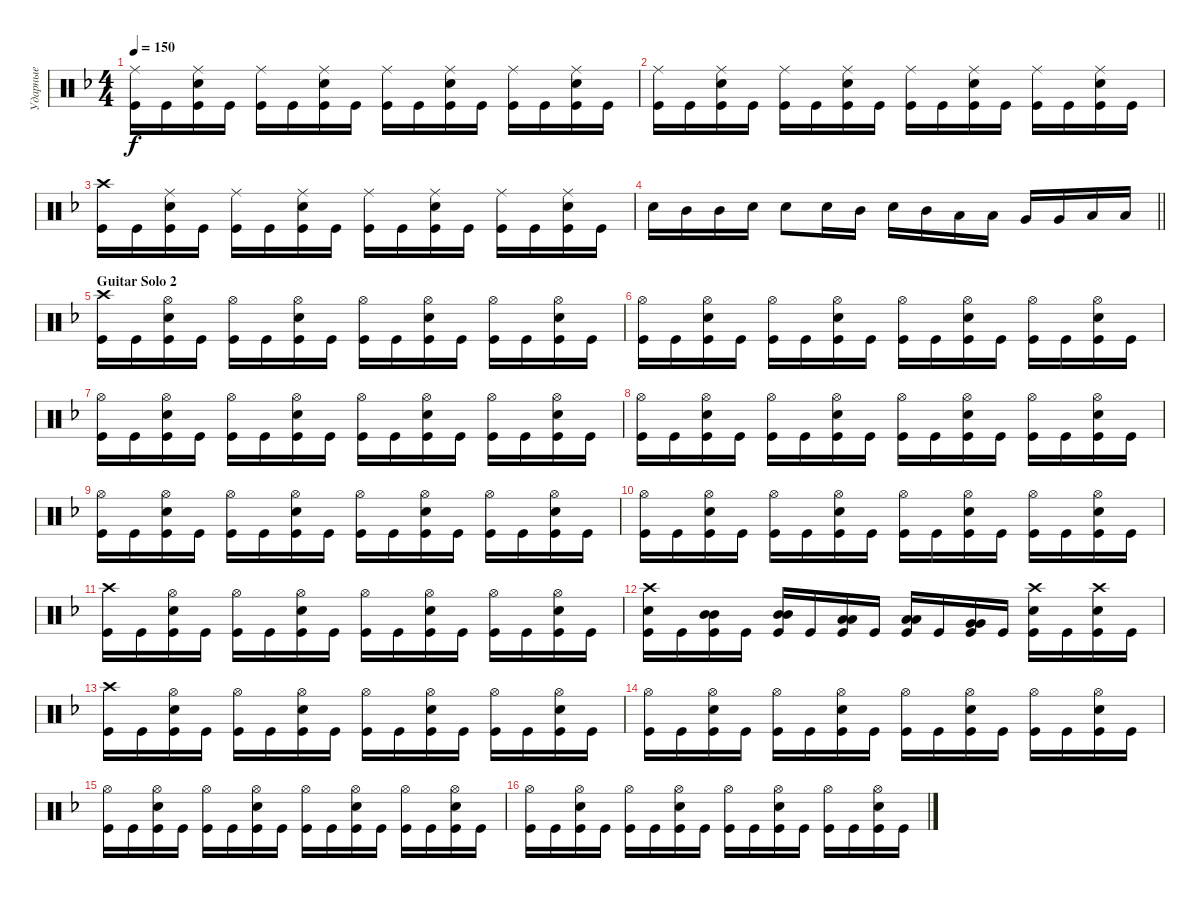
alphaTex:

\track ("Ударные" "Ударные") {instrument percussion}
\staff {score}
\articulation defaults
\ts (4 4)
\tempo 150
\clef neutral
\ks dminor
("Kick (hit)" "Ride (middle)").16{dy f} "Kick (hit)".16 ("Kick (hit)" "Snare (hit) 2" "Ride (middle)").16 "Kick (hit)".16 ("Kick (hit)" "Ride (middle)").16 "Kick (hit)".16 ("Kick (hit)" "Snare (hit) 2" "Ride (middle)").16 "Kick (hit)".16 ("Kick (hit)" "Ride (middle)").16 "Kick (hit)".16 ("Snare (hit) 2" "Kick (hit)" "Ride (middle)").16 "Kick (hit)".16 ("Kick (hit)" "Ride (middle)").16 "Kick (hit)".16 ("Kick (hit)" "Snare (hit) 2" "Ride (middle)").16 "Kick (hit)".16 |
("Kick (hit)" "Ride (middle)").16 "Kick (hit)".16 ("Kick (hit)" "Snare (hit) 2" "Ride (middle)").16 "Kick (hit)".16 ("Kick (hit)" "Ride (middle)").16 "Kick (hit)".16 ("Kick (hit)" "Snare (hit) 2" "Ride (middle)").16 "Kick (hit)".16 ("Kick (hit)" "Ride (middle)").16 "Kick (hit)".16 ("Snare (hit) 2" "Kick (hit)" "Ride (middle)").16 "Kick (hit)".16 ("Kick (hit)" "Ride (middle)").16 "Kick (hit)".16 ("Kick (hit)" "Snare (hit) 2" "Ride (middle)").16 "Kick (hit)".16 |
("Kick (hit)" "Crash high (hit)").16 "Kick (hit)".16 ("Kick (hit)" "Snare (hit) 2" "Ride (middle)").16 "Kick (hit)".16 ("Kick (hit)" "Ride (middle)").16 "Kick (hit)".16 ("Kick (hit)" "Snare (hit) 2" "Ride (middle)").16 "Kick (hit)".16 ("Kick (hit)" "Ride (middle)").16 "Kick (hit)".16 ("Snare (hit) 2" "Kick (hit)" "Ride (middle)").16 "Kick (hit)".16 ("Kick (hit)" "Ride (middle)").16 "Kick (hit)".16 ("Kick (hit)" "Snare (hit) 2" "Ride (middle)").16 "Kick (hit)".16 |
\barLineRight lightlight "Snare (hit) 2".16 "Mid Tom (hit)".16 "Mid Tom (hit)".16 "Snare (hit) 2".16 "Snare (hit) 2".8 "Snare (hit) 2".16 "Mid Tom (hit)".16 "Snare (hit) 2".16 "Mid Tom (hit)".16 "Low Tom (hit)".16 "Low Tom (hit)".16 "Very Low Tom (hit)".16 "Very Low Tom (hit)".16 "Low Floor Tom (hit)".16 "Low Floor Tom (hit)".16
|
\section ("" "Guitar Solo 2")
("Kick (hit)" "Crash high (hit)").16 "Kick (hit)".16 ("Kick (hit)" "Snare (hit) 2" "Hi-Hat (open)").16 "Kick (hit)".16 ("Kick (hit)" "Hi-Hat (open)").16 "Kick (hit)".16 ("Kick (hit)" "Snare (hit) 2" "Hi-Hat (open)").16 "Kick (hit)".16 ("Kick (hit)" "Hi-Hat (open)").16 "Kick (hit)".16 ("Snare (hit) 2" "Kick (hit)" "Hi-Hat (open)").16 "Kick (hit)".16 ("Kick (hit)" "Hi-Hat (open)").16 "Kick (hit)".16 ("Kick (hit)" "Snare (hit) 2" "Hi-Hat (open)").16 "Kick (hit)".16 |
("Kick (hit)" "Hi-Hat (open)").16 "Kick (hit)".16 ("Kick (hit)" "Snare (hit) 2" "Hi-Hat (open)").16 "Kick (hit)".16 ("Kick (hit)" "Hi-Hat (open)").16 "Kick (hit)".16 ("Kick (hit)" "Snare (hit) 2" "Hi-Hat (open)").16 "Kick (hit)".16 ("Kick (hit)" "Hi-Hat (open)").16 "Kick (hit)".16 ("Snare (hit) 2" "Kick (hit)" "Hi-Hat (open)").16 "Kick (hit)".16 ("Kick (hit)" "Hi-Hat (open)").16 "Kick (hit)".16 ("Kick (hit)" "Snare (hit) 2" "Hi-Hat (open)").16 "Kick (hit)".16 |
("Kick (hit)" "Hi-Hat (open)").16 "Kick (hit)".16 ("Kick (hit)" "Snare (hit) 2" "Hi-Hat (open)").16 "Kick (hit)".16 ("Kick (hit)" "Hi-Hat (open)").16 "Kick (hit)".16 ("Kick (hit)" "Snare (hit) 2" "Hi-Hat (open)").16 "Kick (hit)".16 ("Kick (hit)" "Hi-Hat (open)").16 "Kick (hit)".16 ("Snare (hit) 2" "Kick (hit)" "Hi-Hat (open)").16 "Kick (hit)".16 ("Kick (hit)" "Hi-Hat (open)").16 "Kick (hit)".16 ("Kick (hit)" "Snare (hit) 2" "Hi-Hat (open)").16 "Kick (hit)".16 |
("Kick (hit)" "Hi-Hat (open)").16 "Kick (hit)".16 ("Kick (hit)" "Snare (hit) 2" "Hi-Hat (open)").16 "Kick (hit)".16 ("Kick (hit)" "Hi-Hat (open)").16 "Kick (hit)".16 ("Kick (hit)" "Snare (hit) 2" "Hi-Hat (open)").16 "Kick (hit)".16 ("Kick (hit)" "Hi-Hat (open)").16 "Kick (hit)".16 ("Snare (hit) 2" "Kick (hit)" "Hi-Hat (open)").16 "Kick (hit)".16 ("Kick (hit)" "Hi-Hat (open)").16 "Kick (hit)".16 ("Kick (hit)" "Snare (hit) 2" "Hi-Hat (open)").16 "Kick (hit)".16 |
("Kick (hit)" "Hi-Hat (open)").16 "Kick (hit)".16 ("Kick (hit)" "Snare (hit) 2" "Hi-Hat (open)").16 "Kick (hit)".16 ("Kick (hit)" "Hi-Hat (open)").16 "Kick (hit)".16 ("Kick (hit)" "Snare (hit) 2" "Hi-Hat (open)").16 "Kick (hit)".16 ("Kick (hit)" "Hi-Hat (open)").16 "Kick (hit)".16 ("Snare (hit) 2" "Kick (hit)" "Hi-Hat (open)").16 "Kick (hit)".16 ("Kick (hit)" "Hi-Hat (open)").16 "Kick (hit)".16 ("Kick (hit)" "Snare (hit) 2" "Hi-Hat (open)").16 "Kick (hit)".16 |
("Kick (hit)" "Hi-Hat (open)").16 "Kick (hit)".16 ("Kick (hit)" "Snare (hit) 2" "Hi-Hat (open)").16 "Kick (hit)".16 ("Kick (hit)" "Hi-Hat (open)").16 "Kick (hit)".16 ("Kick (hit)" "Snare (hit) 2" "Hi-Hat (open)").16 "Kick (hit)".16 ("Kick (hit)" "Hi-Hat (open)").16 "Kick (hit)".16 ("Snare (hit) 2" "Kick (hit)" "Hi-Hat (open)").16 "Kick (hit)".16 ("Kick (hit)" "Hi-Hat (open)").16 "Kick (hit)".16 ("Kick (hit)" "Snare (hit) 2" "Hi-Hat (open)").16 "Kick (hit)".16 |
("Kick (hit)" "Crash high (hit)").16 "Kick (hit)".16 ("Kick (hit)" "Snare (hit) 2" "Hi-Hat (open)").16 "Kick (hit)".16 ("Kick (hit)" "Hi-Hat (open)").16 "Kick (hit)".16 ("Kick (hit)" "Snare (hit) 2" "Hi-Hat (open)").16 "Kick (hit)".16 ("Kick (hit)" "Hi-Hat (open)").16 "Kick (hit)".16 ("Snare (hit) 2" "Kick (hit)" "Hi-Hat (open)").16 "Kick (hit)".16 ("Kick (hit)" "Hi-Hat (open)").16 "Kick (hit)".16 ("Kick (hit)" "Snare (hit) 2" "Hi-Hat (open)").16 "Kick (hit)".16 |
("Kick (hit)" "Crash high (hit)" "Snare (hit) 2").16 "Kick (hit)".16 ("Kick (hit)" "Mid Tom (hit)" "Mid Tom (hit)").16{bd 240} "Kick (hit)".16 ("Kick (hit)" "Mid Tom (hit)" "Mid Tom (hit)").16{bd 240} "Kick (hit)".16 ("Kick (hit)" "Low Tom (hit)" "Low Tom (hit)").16{bd 240} "Kick (hit)".16 ("Kick (hit)" "Low Tom (hit)" "Low Tom (hit)").16{bd 240} "Kick (hit)".16 ("Very Low Tom (hit)" "Kick (hit)" "Very Low Tom (hit)").16{bd 240} "Kick (hit)".16 ("Kick (hit)" "Snare (hit) 2" "Crash high (hit)").16 "Kick (hit)".16 ("Kick (hit)" "Snare (hit) 2" "Crash high (hit)").16 "Kick (hit)".16 |
("Kick (hit)" "Crash high (hit)").16 "Kick (hit)".16 ("Kick (hit)" "Snare (hit) 2" "Hi-Hat (open)").16 "Kick (hit)".16 ("Kick (hit)" "Hi-Hat (open)").16 "Kick (hit)".16 ("Kick (hit)" "Snare (hit) 2" "Hi-Hat (open)").16 "Kick (hit)".16 ("Kick (hit)" "Hi-Hat (open)").16 "Kick (hit)".16 ("Snare (hit) 2" "Kick (hit)" "Hi-Hat (open)").16 "Kick (hit)".16 ("Kick (hit)" "Hi-Hat (open)").16 "Kick (hit)".16 ("Kick (hit)" "Snare (hit) 2" "Hi-Hat (open)").16 "Kick (hit)".16 |
("Kick (hit)" "Hi-Hat (open)").16 "Kick (hit)".16 ("Kick (hit)" "Snare (hit) 2" "Hi-Hat (open)").16 "Kick (hit)".16 ("Kick (hit)" "Hi-Hat (open)").16 "Kick (hit)".16 ("Kick (hit)" "Snare (hit) 2" "Hi-Hat (open)").16 "Kick (hit)".16 ("Kick (hit)" "Hi-Hat (open)").16 "Kick (hit)".16 ("Snare (hit) 2" "Kick (hit)" "Hi-Hat (open)").16 "Kick (hit)".16 ("Kick (hit)" "Hi-Hat (open)").16 "Kick (hit)".16 ("Kick (hit)" "Snare (hit) 2" "Hi-Hat (open)").16 "Kick (hit)".16 |
("Kick (hit)" "Hi-Hat (open)").16 "Kick (hit)".16 ("Kick (hit)" "Snare (hit) 2" "Hi-Hat (open)").16 "Kick (hit)".16 ("Kick (hit)" "Hi-Hat (open)").16 "Kick (hit)".16 ("Kick (hit)" "Snare (hit) 2" "Hi-Hat (open)").16 "Kick (hit)".16 ("Kick (hit)" "Hi-Hat (open)").16 "Kick (hit)".16 ("Snare (hit) 2" "Kick (hit)" "Hi-Hat (open)").16 "Kick (hit)".16 ("Kick (hit)" "Hi-Hat (open)").16 "Kick (hit)".16 ("Kick (hit)" "Snare (hit) 2" "Hi-Hat (open)").16 "Kick (hit)".16 |
("Kick (hit)" "Hi-Hat (open)").16 "Kick (hit)".16 ("Kick (hit)" "Snare (hit) 2" "Hi-Hat (open)").16 "Kick (hit)".16 ("Kick (hit)" "Hi-Hat (open)").16 "Kick (hit)".16 ("Kick (hit)" "Snare (hit) 2" "Hi-Hat (open)").16 "Kick (hit)".16 ("Kick (hit)" "Hi-Hat (open)").16 "Kick (hit)".16 ("Snare (hit) 2" "Kick (hit)" "Hi-Hat (open)").16 "Kick (hit)".16 ("Kick (hit)" "Hi-Hat (open)").16 "Kick (hit)".16 ("Kick (hit)" "Snare (hit) 2" "Hi-Hat (open)").16 "Kick (hit)".16
